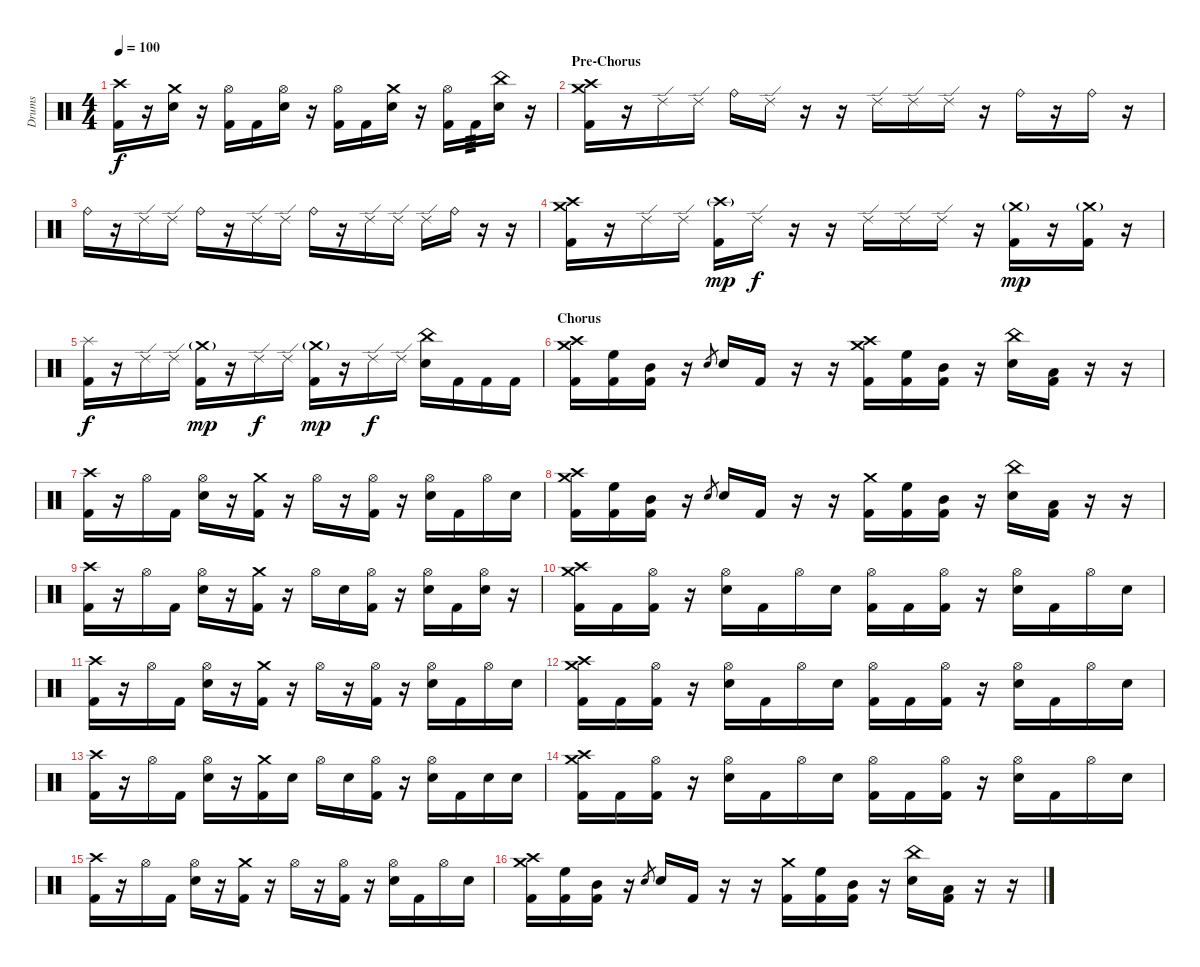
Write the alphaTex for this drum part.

\track ("Drums" "Drums") {instrument percussion}
\staff {score}
\articulation defaults
\ts (4 4)
\tempo 100
\clef neutral
\ks c
("Crash high (hit)" "Kick (hit) 2").16{dy f} r.16 ("Crash medium (hit)" "Electric Snare (hit)").16 r.16 ("Hi-Hat (open)" "Kick (hit) 2").16 "Kick (hit) 2".16 ("Hi-Hat (open)" "Electric Snare (hit)").16 r.16 ("Hi-Hat (open)" "Kick (hit) 2").16 "Kick (hit) 2".16 ("Crash medium (hit)" "Electric Snare (hit)").16 r.16 ("Hi-Hat (open)" "Kick (hit) 2").16 "Kick (hit) 2".16{tp 3} ("China (hit)" "Electric Snare (hit)").16 r.16 |
\section ("" "Pre-Chorus")
("Crash high (hit)" "Crash medium (hit)" "Kick (hit) 2").16 r.16 "Ride (edge) 2".16 "Ride (edge) 2".16 "Ride (bell)".16 "Ride (edge) 2".16 r.16 r.16 "Ride (edge) 2".16 "Ride (edge) 2".16 "Ride (edge) 2".16 r.16 "Ride (bell)".16 r.16 "Ride (bell)".16 r.16 |
"Ride (bell)".16 r.16 "Ride (edge) 2".16 "Ride (edge) 2".16 "Ride (bell)".16 r.16 "Ride (edge) 2".16 "Ride (edge) 2".16 "Ride (bell)".16 r.16 "Ride (edge) 2".16 "Ride (edge) 2".16 "Ride (edge) 2".16 "Ride (bell)".16 r.16 r.16 |
("Crash high (hit)" "Crash medium (hit)" "Kick (hit) 2").16 r.16 "Ride (edge) 2".16 "Ride (edge) 2".16 ("Crash high (hit)"{g} "Kick (hit) 2").16{dy mp} "Ride (edge) 2".16{dy f} r.16 r.16 "Ride (edge) 2".16 "Ride (edge) 2".16 "Ride (edge) 2".16 r.16 ("Crash medium (hit)"{g} "Kick (hit) 2").16{dy mp} r.16 ("Crash medium (hit)"{g} "Kick (hit) 2").16 r.16 |
("Splash (hit)" "Kick (hit) 2").16{dy f} r.16 "Ride (edge) 2".16 "Ride (edge) 2".16 ("Crash medium (hit)"{g} "Kick (hit) 2").16{dy mp} r.16 "Ride (edge) 2".16{dy f} "Ride (edge) 2".16 ("Crash medium (hit)"{g} "Kick (hit) 2").16{dy mp} r.16 "Ride (edge) 2".16{dy f} "Ride (edge) 2".16 ("China (hit)" "Electric Snare (hit)").16 "Kick (hit) 2".16 "Kick (hit) 2".16 "Kick (hit) 2".16 |
\section ("" "Chorus")
("Crash medium (hit)" "Crash high (hit)" "Kick (hit) 2").16 ("High Floor Tom (hit)" "Kick (hit) 2").16 ("Mid Tom (hit)" "Kick (hit) 2").16 r.16 "Electric Snare (hit)".8{gr} "Electric Snare (hit)".16 "Kick (hit) 2".16 r.16 r.16 ("Crash medium (hit)" "Crash high (hit)" "Kick (hit) 2").16 ("High Floor Tom (hit)" "Kick (hit) 2").16 ("Mid Tom (hit)" "Kick (hit) 2").16 r.16 ("China (hit)" "Electric Snare (hit)").16 ("Low Tom (hit)" "Kick (hit) 2").16 r.16 r.16 |
("Crash high (hit)" "Kick (hit) 2").16 r.16 "Hi-Hat (open)".16 "Kick (hit) 2".16 ("Hi-Hat (open)" "Electric Snare (hit)").16 r.16 ("Crash medium (hit)" "Kick (hit) 2").16 r.16 "Hi-Hat (open)".16 r.16 ("Hi-Hat (open)" "Kick (hit) 2").16 r.16 ("Hi-Hat (open)" "Electric Snare (hit)").16 "Kick (hit) 2".16 "Hi-Hat (open)".16 "Electric Snare (hit)".16 |
("Crash medium (hit)" "Crash high (hit)" "Kick (hit) 2").16 ("High Floor Tom (hit)" "Kick (hit) 2").16 ("Mid Tom (hit)" "Kick (hit) 2").16 r.16 "Electric Snare (hit)".8{gr} "Electric Snare (hit)".16 "Kick (hit) 2".16 r.16 r.16 ("Crash medium (hit)" "Kick (hit) 2").16 ("High Floor Tom (hit)" "Kick (hit) 2").16 ("Mid Tom (hit)" "Kick (hit) 2").16 r.16 ("China (hit)" "Electric Snare (hit)").16 ("Low Tom (hit)" "Kick (hit) 2").16 r.16 r.16 |
("Crash high (hit)" "Kick (hit) 2").16 r.16 "Hi-Hat (open)".16 "Kick (hit) 2".16 ("Hi-Hat (open)" "Electric Snare (hit)").16 r.16 ("Crash medium (hit)" "Kick (hit) 2").16 r.16 "Hi-Hat (open)".16 "Electric Snare (hit)".16 ("Hi-Hat (open)" "Kick (hit) 2").16 r.16 ("Hi-Hat (open)" "Electric Snare (hit)").16 "Kick (hit) 2".16 ("Hi-Hat (open)" "Electric Snare (hit)").16 r.16 |
("Crash medium (hit)" "Crash high (hit)" "Kick (hit) 2").16 "Kick (hit) 2".16 ("Hi-Hat (open)" "Kick (hit) 2").16 r.16 ("Hi-Hat (open)" "Electric Snare (hit)").16 "Kick (hit) 2".16 "Hi-Hat (open)".16 "Electric Snare (hit)".16 ("Hi-Hat (open)" "Kick (hit) 2").16 "Kick (hit) 2".16 ("Hi-Hat (open)" "Kick (hit) 2").16 r.16 ("Hi-Hat (open)" "Electric Snare (hit)").16 "Kick (hit) 2".16 "Hi-Hat (open)".16 "Electric Snare (hit)".16 |
("Crash high (hit)" "Kick (hit) 2").16 r.16 "Hi-Hat (open)".16 "Kick (hit) 2".16 ("Hi-Hat (open)" "Electric Snare (hit)").16 r.16 ("Crash medium (hit)" "Kick (hit) 2").16 r.16 "Hi-Hat (open)".16 r.16 ("Hi-Hat (open)" "Kick (hit) 2").16 r.16 ("Hi-Hat (open)" "Electric Snare (hit)").16 "Kick (hit) 2".16 "Hi-Hat (open)".16 "Electric Snare (hit)".16 |
("Crash medium (hit)" "Crash high (hit)" "Kick (hit) 2").16 "Kick (hit) 2".16 ("Hi-Hat (open)" "Kick (hit) 2").16 r.16 ("Hi-Hat (open)" "Electric Snare (hit)").16 "Kick (hit) 2".16 "Hi-Hat (open)".16 "Electric Snare (hit)".16 ("Hi-Hat (open)" "Kick (hit) 2").16 "Kick (hit) 2".16 ("Hi-Hat (open)" "Kick (hit) 2").16 r.16 ("Hi-Hat (open)" "Electric Snare (hit)").16 "Kick (hit) 2".16 "Hi-Hat (open)".16 "Electric Snare (hit)".16 |
("Crash high (hit)" "Kick (hit) 2").16 r.16 "Hi-Hat (open)".16 "Kick (hit) 2".16 ("Hi-Hat (open)" "Electric Snare (hit)").16 r.16 ("Crash medium (hit)" "Kick (hit) 2").16 "Electric Snare (hit)".16 "Hi-Hat (open)".16 "Electric Snare (hit)".16 ("Hi-Hat (open)" "Kick (hit) 2").16 r.16 ("Hi-Hat (open)" "Electric Snare (hit)").16 "Kick (hit) 2".16 "Electric Snare (hit)".16 "Electric Snare (hit)".16 |
("Crash medium (hit)" "Crash high (hit)" "Kick (hit) 2").16 "Kick (hit) 2".16 ("Hi-Hat (open)" "Kick (hit) 2").16 r.16 ("Hi-Hat (open)" "Electric Snare (hit)").16 "Kick (hit) 2".16 "Hi-Hat (open)".16 "Electric Snare (hit)".16 ("Hi-Hat (open)" "Kick (hit) 2").16 "Kick (hit) 2".16 ("Hi-Hat (open)" "Kick (hit) 2").16 r.16 ("Hi-Hat (open)" "Electric Snare (hit)").16 "Kick (hit) 2".16 "Hi-Hat (open)".16 "Electric Snare (hit)".16 |
("Crash high (hit)" "Kick (hit) 2").16 r.16 "Hi-Hat (open)".16 "Kick (hit) 2".16 ("Hi-Hat (open)" "Electric Snare (hit)").16 r.16 ("Crash medium (hit)" "Kick (hit) 2").16 r.16 "Hi-Hat (open)".16 r.16 ("Hi-Hat (open)" "Kick (hit) 2").16 r.16 ("Hi-Hat (open)" "Electric Snare (hit)").16 "Kick (hit) 2".16 "Hi-Hat (open)".16 "Electric Snare (hit)".16 |
("Crash medium (hit)" "Crash high (hit)" "Kick (hit) 2").16 ("High Floor Tom (hit)" "Kick (hit) 2").16 ("Mid Tom (hit)" "Kick (hit) 2").16 r.16 "Electric Snare (hit)".8{gr} "Electric Snare (hit)".16 "Kick (hit) 2".16 r.16 r.16 ("Crash medium (hit)" "Kick (hit) 2").16 ("High Floor Tom (hit)" "Kick (hit) 2").16 ("Mid Tom (hit)" "Kick (hit) 2").16 r.16 ("China (hit)" "Electric Snare (hit)").16 ("Low Tom (hit)" "Kick (hit) 2").16 r.16 r.16
